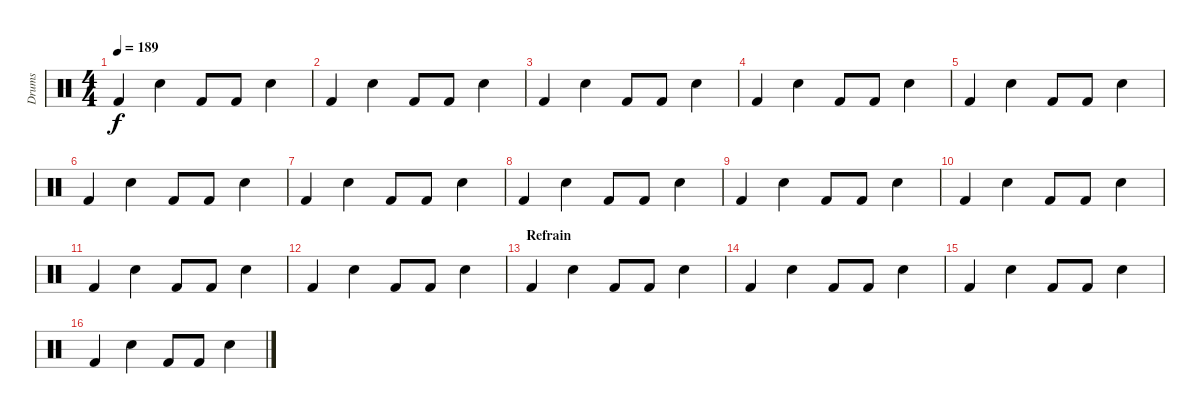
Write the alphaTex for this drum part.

\track ("Drums" "Drums") {instrument percussion}
\staff {score}
\articulation defaults
\ts (4 4)
\tempo 189
\clef neutral
\ks c "Kick (hit) 2".4{dy f} "Electric Snare (hit)".4 "Kick (hit) 2".8 "Kick (hit) 2".8 "Electric Snare (hit)".4
|
"Kick (hit) 2".4 "Electric Snare (hit)".4 "Kick (hit) 2".8 "Kick (hit) 2".8 "Electric Snare (hit)".4 |
"Kick (hit) 2".4 "Electric Snare (hit)".4 "Kick (hit) 2".8 "Kick (hit) 2".8 "Electric Snare (hit)".4 |
"Kick (hit) 2".4 "Electric Snare (hit)".4 "Kick (hit) 2".8 "Kick (hit) 2".8 "Electric Snare (hit)".4 |
"Kick (hit) 2".4 "Electric Snare (hit)".4 "Kick (hit) 2".8 "Kick (hit) 2".8 "Electric Snare (hit)".4 |
"Kick (hit) 2".4 "Electric Snare (hit)".4 "Kick (hit) 2".8 "Kick (hit) 2".8 "Electric Snare (hit)".4 |
"Kick (hit) 2".4 "Electric Snare (hit)".4 "Kick (hit) 2".8 "Kick (hit) 2".8 "Electric Snare (hit)".4 |
"Kick (hit) 2".4 "Electric Snare (hit)".4 "Kick (hit) 2".8 "Kick (hit) 2".8 "Electric Snare (hit)".4 |
"Kick (hit) 2".4 "Electric Snare (hit)".4 "Kick (hit) 2".8 "Kick (hit) 2".8 "Electric Snare (hit)".4 |
"Kick (hit) 2".4 "Electric Snare (hit)".4 "Kick (hit) 2".8 "Kick (hit) 2".8 "Electric Snare (hit)".4 |
"Kick (hit) 2".4 "Electric Snare (hit)".4 "Kick (hit) 2".8 "Kick (hit) 2".8 "Electric Snare (hit)".4 |
"Kick (hit) 2".4 "Electric Snare (hit)".4 "Kick (hit) 2".8 "Kick (hit) 2".8 "Electric Snare (hit)".4 |
\section ("" "Refrain")
"Kick (hit) 2".4 "Electric Snare (hit)".4 "Kick (hit) 2".8 "Kick (hit) 2".8 "Electric Snare (hit)".4 |
"Kick (hit) 2".4 "Electric Snare (hit)".4 "Kick (hit) 2".8 "Kick (hit) 2".8 "Electric Snare (hit)".4 |
"Kick (hit) 2".4 "Electric Snare (hit)".4 "Kick (hit) 2".8 "Kick (hit) 2".8 "Electric Snare (hit)".4 |
"Kick (hit) 2".4 "Electric Snare (hit)".4 "Kick (hit) 2".8 "Kick (hit) 2".8 "Electric Snare (hit)".4
